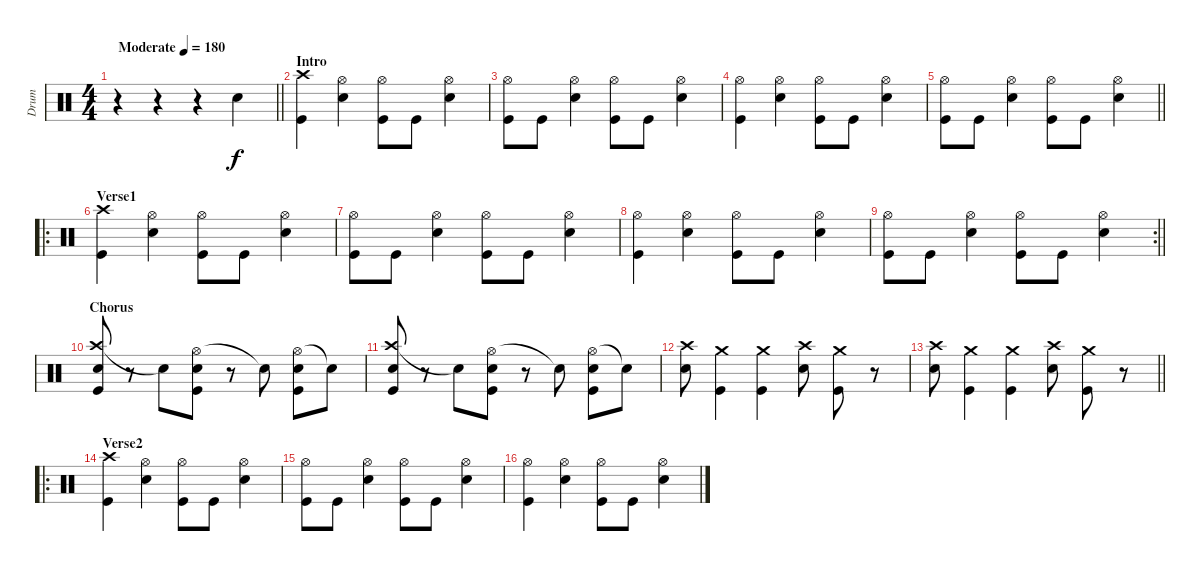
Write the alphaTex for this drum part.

\track ("Drum" "Drum") {instrument percussion}
\staff {score}
\articulation defaults
\ts (4 4)
\tempo (180 "Moderate")
\clef neutral
\barLineRight lightlight
\ks c
r.4{dy f} r.4 r.4 "Snare (hit) 2".4 |
\section ("" "Intro")
("Crash high (hit)" "Kick (hit)").4 ("Hi-Hat (open)" "Snare (hit) 2").4 ("Hi-Hat (open)" "Kick (hit)").8 "Kick (hit)".8 ("Hi-Hat (open)" "Snare (hit) 2").4 |
("Hi-Hat (open)" "Kick (hit)").8 "Kick (hit)".8 ("Hi-Hat (open)" "Snare (hit) 2").4 ("Hi-Hat (open)" "Kick (hit)").8 "Kick (hit)".8 ("Hi-Hat (open)" "Snare (hit) 2").4 |
("Hi-Hat (open)" "Kick (hit)").4 ("Hi-Hat (open)" "Snare (hit) 2").4 ("Hi-Hat (open)" "Kick (hit)").8 "Kick (hit)".8 ("Hi-Hat (open)" "Snare (hit) 2").4 |
\barLineRight lightlight
("Hi-Hat (open)" "Kick (hit)").8 "Kick (hit)".8 ("Hi-Hat (open)" "Snare (hit) 2").4 ("Hi-Hat (open)" "Kick (hit)").8 "Kick (hit)".8 ("Hi-Hat (open)" "Snare (hit) 2").4 |
\ro
\section ("" "Verse1")
("Crash high (hit)" "Kick (hit)").4 ("Hi-Hat (open)" "Snare (hit) 2").4 ("Hi-Hat (open)" "Kick (hit)").8 "Kick (hit)".8 ("Hi-Hat (open)" "Snare (hit) 2").4 |
("Hi-Hat (open)" "Kick (hit)").8 "Kick (hit)".8 ("Hi-Hat (open)" "Snare (hit) 2").4 ("Hi-Hat (open)" "Kick (hit)").8 "Kick (hit)".8 ("Hi-Hat (open)" "Snare (hit) 2").4 |
("Hi-Hat (open)" "Kick (hit)").4 ("Hi-Hat (open)" "Snare (hit) 2").4 ("Hi-Hat (open)" "Kick (hit)").8 "Kick (hit)".8 ("Hi-Hat (open)" "Snare (hit) 2").4 |
\rc 2
\barLineRight lightlight
("Hi-Hat (open)" "Kick (hit)").8 "Kick (hit)".8 ("Hi-Hat (open)" "Snare (hit) 2").4 ("Hi-Hat (open)" "Kick (hit)").8 "Kick (hit)".8 ("Hi-Hat (open)" "Snare (hit) 2").4 |
\section ("" "Chorus")
("Crash high (hit)" "Snare (hit) 2" "Kick (hit)").8 r.8 "Snare (hit)"{t}.8 ("Hi-Hat (open)" "Snare (hit) 2" "Kick (hit)").8 r.8 "Snare (hit)"{t}.8 ("Hi-Hat (open)" "Snare (hit) 2" "Kick (hit)").8 "Snare (hit)"{t}.8 |
("Crash high (hit)" "Snare (hit) 2" "Kick (hit)").8 r.8 "Snare (hit)"{t}.8 ("Hi-Hat (open)" "Snare (hit) 2" "Kick (hit)").8 r.8 "Snare (hit)"{t}.8 ("Hi-Hat (open)" "Snare (hit) 2" "Kick (hit)").8 "Snare (hit)"{t}.8 |
("Crash high (hit)" "Snare (hit) 2").8 ("Crash medium (hit)" "Kick (hit)").4 ("Crash medium (hit)" "Kick (hit)").4 ("Crash high (hit)" "Snare (hit) 2").8 ("Crash medium (hit)" "Kick (hit)").8 r.8 |
\barLineRight lightlight
("Crash high (hit)" "Snare (hit) 2").8 ("Crash medium (hit)" "Kick (hit)").4 ("Crash medium (hit)" "Kick (hit)").4 ("Crash high (hit)" "Snare (hit) 2").8 ("Crash medium (hit)" "Kick (hit)").8 r.8 |
\ro
\section ("" "Verse2")
("Crash high (hit)" "Kick (hit)").4 ("Hi-Hat (open)" "Snare (hit) 2").4 ("Hi-Hat (open)" "Kick (hit)").8 "Kick (hit)".8 ("Hi-Hat (open)" "Snare (hit) 2").4 |
("Hi-Hat (open)" "Kick (hit)").8 "Kick (hit)".8 ("Hi-Hat (open)" "Snare (hit) 2").4 ("Hi-Hat (open)" "Kick (hit)").8 "Kick (hit)".8 ("Hi-Hat (open)" "Snare (hit) 2").4 |
("Hi-Hat (open)" "Kick (hit)").4 ("Hi-Hat (open)" "Snare (hit) 2").4 ("Hi-Hat (open)" "Kick (hit)").8 "Kick (hit)".8 ("Hi-Hat (open)" "Snare (hit) 2").4
